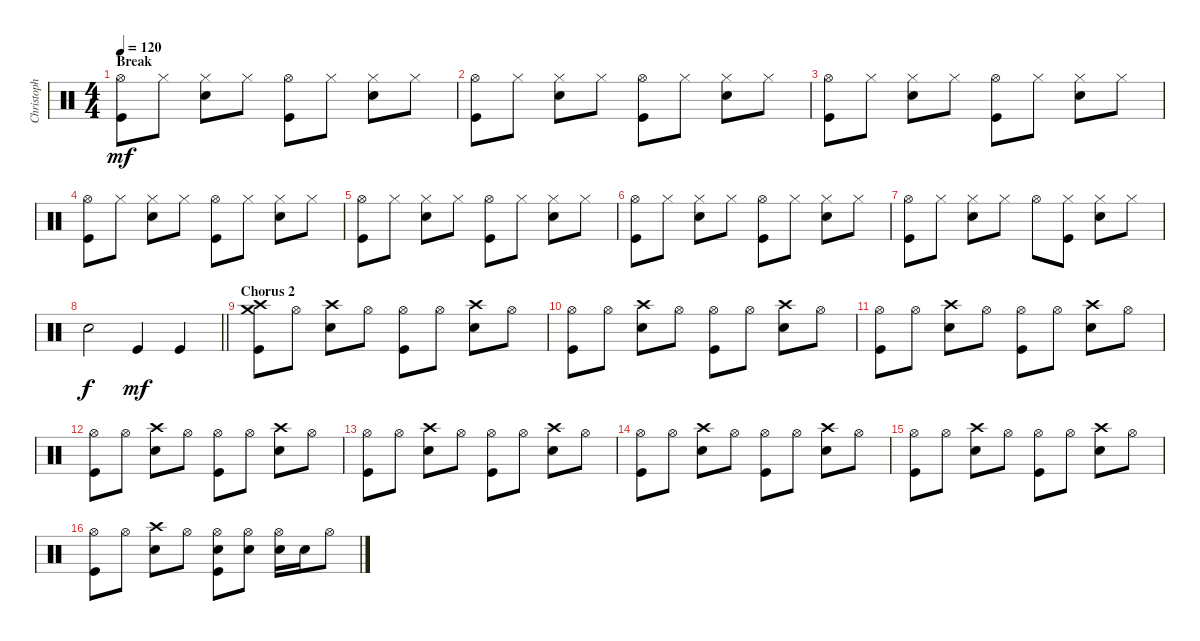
\track ("Christoph Schneider" "Christoph ") {instrument percussion}
\staff {score}
\articulation defaults
\ts (4 4)
\section ("" "Break")
\tempo 120
\clef neutral
\ks c
("Kick (hit)" "Hi-Hat (open)").8{dy mf} "Hi-Hat (closed)".8 ("Snare (hit) 2" "Hi-Hat (closed)").8 "Hi-Hat (closed)".8 ("Hi-Hat (open)" "Kick (hit)").8 "Hi-Hat (closed)".8 ("Hi-Hat (closed)" "Snare (hit) 2").8 "Hi-Hat (closed)".8 |
("Kick (hit)" "Hi-Hat (open)").8 "Hi-Hat (closed)".8 ("Snare (hit) 2" "Hi-Hat (closed)").8 "Hi-Hat (closed)".8 ("Hi-Hat (open)" "Kick (hit)").8 "Hi-Hat (closed)".8 ("Hi-Hat (closed)" "Snare (hit) 2").8 "Hi-Hat (closed)".8 |
("Kick (hit)" "Hi-Hat (open)").8 "Hi-Hat (closed)".8 ("Snare (hit) 2" "Hi-Hat (closed)").8 "Hi-Hat (closed)".8 ("Hi-Hat (open)" "Kick (hit)").8 "Hi-Hat (closed)".8 ("Hi-Hat (closed)" "Snare (hit) 2").8 "Hi-Hat (closed)".8 |
("Kick (hit)" "Hi-Hat (open)").8 "Hi-Hat (closed)".8 ("Snare (hit) 2" "Hi-Hat (closed)").8 "Hi-Hat (closed)".8 ("Hi-Hat (open)" "Kick (hit)").8 "Hi-Hat (closed)".8 ("Hi-Hat (closed)" "Snare (hit) 2").8 "Hi-Hat (closed)".8 |
("Kick (hit)" "Hi-Hat (open)").8 "Hi-Hat (closed)".8 ("Snare (hit) 2" "Hi-Hat (closed)").8 "Hi-Hat (closed)".8 ("Hi-Hat (open)" "Kick (hit)").8 "Hi-Hat (closed)".8 ("Hi-Hat (closed)" "Snare (hit) 2").8 "Hi-Hat (closed)".8 |
("Kick (hit)" "Hi-Hat (open)").8 "Hi-Hat (closed)".8 ("Snare (hit) 2" "Hi-Hat (closed)").8 "Hi-Hat (closed)".8 ("Hi-Hat (open)" "Kick (hit)").8 "Hi-Hat (closed)".8 ("Hi-Hat (closed)" "Snare (hit) 2").8 "Hi-Hat (closed)".8 |
("Kick (hit)" "Hi-Hat (open)").8 "Hi-Hat (closed)".8 ("Snare (hit) 2" "Hi-Hat (closed)").8 "Hi-Hat (closed)".8 "Hi-Hat (open)".8 ("Hi-Hat (closed)" "Kick (hit)").8 ("Hi-Hat (closed)" "Snare (hit) 2").8 "Hi-Hat (closed)".8 |
\barLineRight lightlight "Snare (hit) 2".2{dy f} "Kick (hit)".4{dy mf} "Kick (hit)".4
|
\section ("" "Chorus 2")
("Kick (hit)" "Crash high (hit)" "Crash medium (hit)").8 "Hi-Hat (open)".8 ("Snare (hit) 2" "Crash high (hit)").8 "Hi-Hat (open)".8 ("Hi-Hat (open)" "Kick (hit)").8 "Hi-Hat (open)".8 ("Snare (hit) 2" "Crash high (hit)").8 "Hi-Hat (open)".8 |
("Kick (hit)" "Hi-Hat (open)").8 "Hi-Hat (open)".8 ("Snare (hit) 2" "Crash high (hit)").8 "Hi-Hat (open)".8 ("Hi-Hat (open)" "Kick (hit)").8 "Hi-Hat (open)".8 ("Snare (hit) 2" "Crash high (hit)").8 "Hi-Hat (open)".8 |
("Kick (hit)" "Hi-Hat (open)").8 "Hi-Hat (open)".8 ("Snare (hit) 2" "Crash high (hit)").8 "Hi-Hat (open)".8 ("Hi-Hat (open)" "Kick (hit)").8 "Hi-Hat (open)".8 ("Snare (hit) 2" "Crash high (hit)").8 "Hi-Hat (open)".8 |
("Kick (hit)" "Hi-Hat (open)").8 "Hi-Hat (open)".8 ("Snare (hit) 2" "Crash high (hit)").8 "Hi-Hat (open)".8 ("Hi-Hat (open)" "Kick (hit)").8 "Hi-Hat (open)".8 ("Snare (hit) 2" "Crash high (hit)").8 "Hi-Hat (open)".8 |
("Kick (hit)" "Hi-Hat (open)").8 "Hi-Hat (open)".8 ("Snare (hit) 2" "Crash high (hit)").8 "Hi-Hat (open)".8 ("Hi-Hat (open)" "Kick (hit)").8 "Hi-Hat (open)".8 ("Snare (hit) 2" "Crash high (hit)").8 "Hi-Hat (open)".8 |
("Kick (hit)" "Hi-Hat (open)").8 "Hi-Hat (open)".8 ("Snare (hit) 2" "Crash high (hit)").8 "Hi-Hat (open)".8 ("Hi-Hat (open)" "Kick (hit)").8 "Hi-Hat (open)".8 ("Snare (hit) 2" "Crash high (hit)").8 "Hi-Hat (open)".8 |
("Kick (hit)" "Hi-Hat (open)").8 "Hi-Hat (open)".8 ("Snare (hit) 2" "Crash high (hit)").8 "Hi-Hat (open)".8 ("Hi-Hat (open)" "Kick (hit)").8 "Hi-Hat (open)".8 ("Snare (hit) 2" "Crash high (hit)").8 "Hi-Hat (open)".8 |
("Kick (hit)" "Hi-Hat (open)").8 "Hi-Hat (open)".8 ("Snare (hit) 2" "Crash high (hit)").8 "Hi-Hat (open)".8 ("Hi-Hat (open)" "Kick (hit)" "Snare (hit) 2").8 ("Hi-Hat (open)" "Snare (hit) 2").8 ("Hi-Hat (open)" "Snare (hit) 2").16 "Snare (hit) 2".16 "Hi-Hat (open)".8
